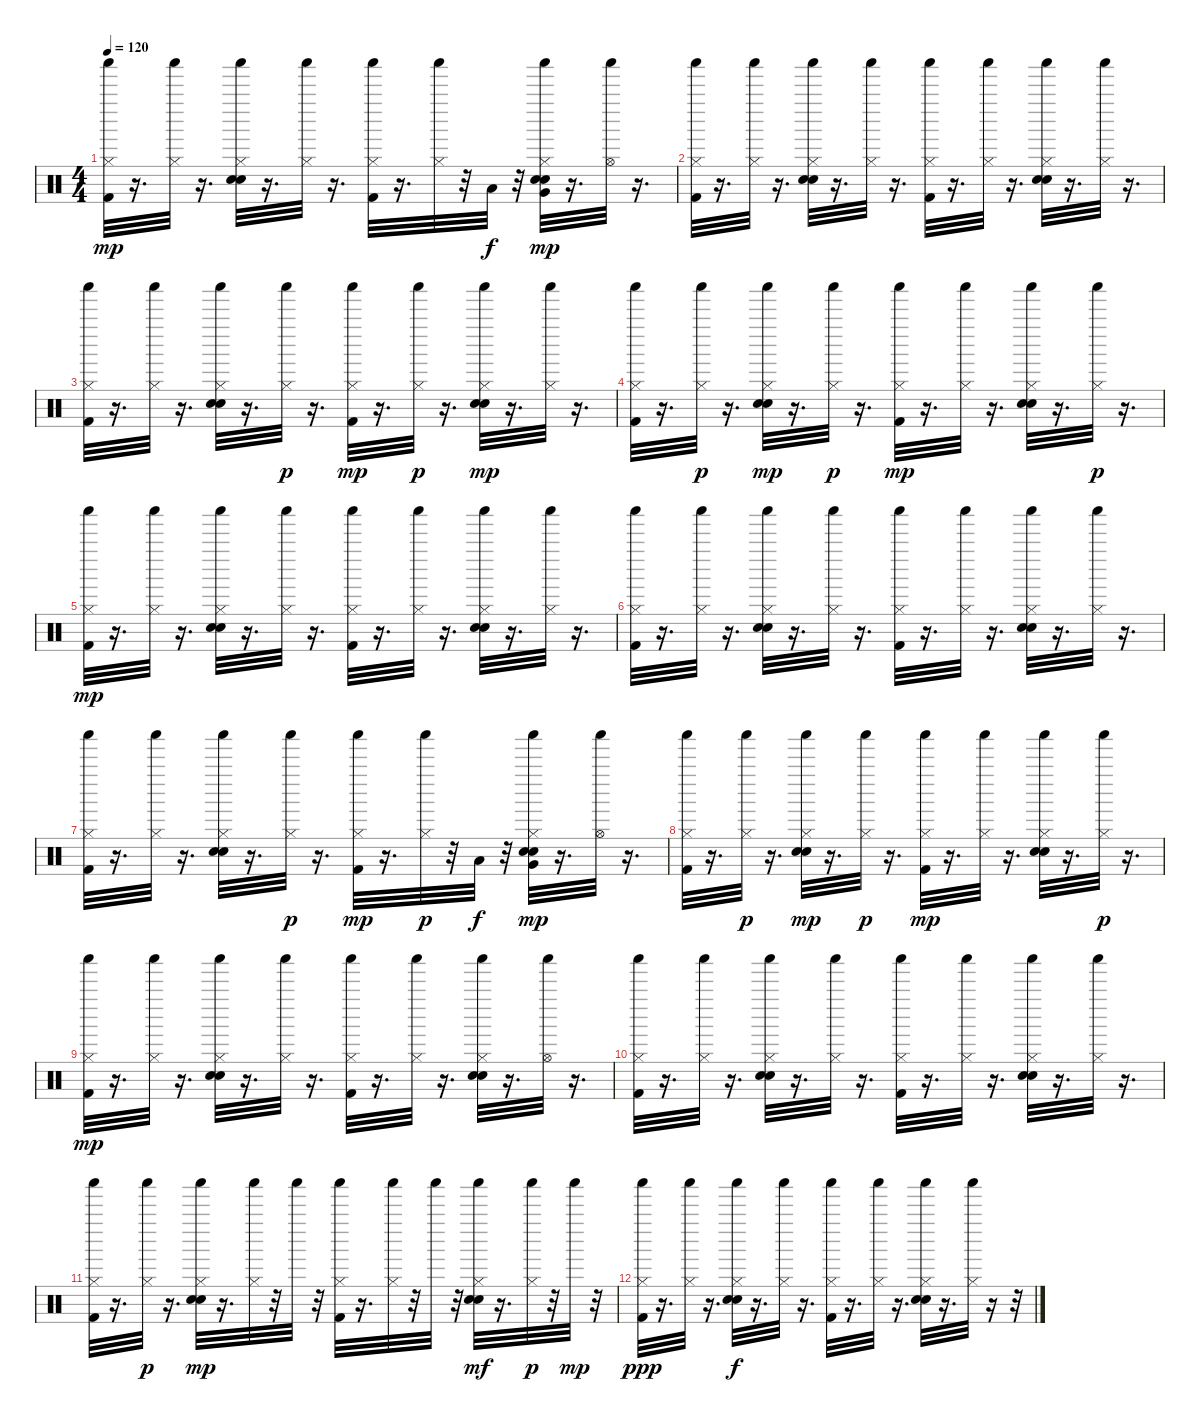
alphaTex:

\track "" {instrument percussion}
\staff {score}
\articulation defaults
\ts (4 4)
\tempo 120
\clef neutral
\ks c
("Kick (hit) 2" "Hi-Hat (closed)" "Shaker (hit)").32{dy mp} r.16{d} ("Hi-Hat (closed)" "Shaker (hit)").32 r.16{d} ("Hand Clap (hit)" "Electric Snare (hit)" "Hi-Hat (closed)" "Shaker (hit)").32 r.16{d} ("Hi-Hat (closed)" "Shaker (hit)").32 r.16{d} ("Kick (hit) 2" "Hi-Hat (closed)" "Shaker (hit)").32 r.16{d} ("Hi-Hat (closed)" "Shaker (hit)").32 r.32 "Low Tom (hit)".32{dy f} r.32 ("Hand Clap (hit)" "Electric Snare (hit)" "Hi-Hat (closed)" "Very Low Tom (hit)" "Shaker (hit)").32{dy mp} r.16{d} ("Hi-Hat (open)" "Shaker (hit)").32 r.16{d} |
("Kick (hit) 2" "Hi-Hat (closed)" "Shaker (hit)").32 r.16{d} ("Hi-Hat (closed)" "Shaker (hit)").32 r.16{d} ("Hand Clap (hit)" "Electric Snare (hit)" "Hi-Hat (closed)" "Shaker (hit)").32 r.16{d} ("Hi-Hat (closed)" "Shaker (hit)").32 r.16{d} ("Kick (hit) 2" "Hi-Hat (closed)" "Shaker (hit)").32 r.16{d} ("Hi-Hat (closed)" "Shaker (hit)").32 r.16{d} ("Hand Clap (hit)" "Electric Snare (hit)" "Hi-Hat (closed)" "Shaker (hit)").32 r.16{d} ("Hi-Hat (closed)" "Shaker (hit)").32 r.16{d} |
("Kick (hit) 2" "Hi-Hat (closed)" "Shaker (hit)").32 r.16{d} ("Hi-Hat (closed)" "Shaker (hit)").32 r.16{d} ("Hand Clap (hit)" "Electric Snare (hit)" "Hi-Hat (closed)" "Shaker (hit)").32 r.16{d} ("Hi-Hat (closed)" "Shaker (hit)").32{dy p} r.16{d} ("Kick (hit) 2" "Hi-Hat (closed)" "Shaker (hit)").32{dy mp} r.16{d} ("Hi-Hat (closed)" "Shaker (hit)").32{dy p} r.16{d} ("Hand Clap (hit)" "Electric Snare (hit)" "Hi-Hat (closed)" "Shaker (hit)").32{dy mp} r.16{d} ("Hi-Hat (closed)" "Shaker (hit)").32 r.16{d} |
("Kick (hit) 2" "Hi-Hat (closed)" "Shaker (hit)").32 r.16{d} ("Hi-Hat (closed)" "Shaker (hit)").32{dy p} r.16{d} ("Hand Clap (hit)" "Electric Snare (hit)" "Hi-Hat (closed)" "Shaker (hit)").32{dy mp} r.16{d} ("Hi-Hat (closed)" "Shaker (hit)").32{dy p} r.16{d} ("Kick (hit) 2" "Hi-Hat (closed)" "Shaker (hit)").32{dy mp} r.16{d} ("Hi-Hat (closed)" "Shaker (hit)").32 r.16{d} ("Hand Clap (hit)" "Electric Snare (hit)" "Hi-Hat (closed)" "Shaker (hit)").32 r.16{d} ("Hi-Hat (closed)" "Shaker (hit)").32{dy p} r.16{d} |
("Kick (hit) 2" "Hi-Hat (closed)" "Shaker (hit)").32{dy mp} r.16{d} ("Hi-Hat (closed)" "Shaker (hit)").32 r.16{d} ("Hand Clap (hit)" "Electric Snare (hit)" "Hi-Hat (closed)" "Shaker (hit)").32 r.16{d} ("Hi-Hat (closed)" "Shaker (hit)").32 r.16{d} ("Kick (hit) 2" "Hi-Hat (closed)" "Shaker (hit)").32 r.16{d} ("Hi-Hat (closed)" "Shaker (hit)").32 r.16{d} ("Hand Clap (hit)" "Electric Snare (hit)" "Hi-Hat (closed)" "Shaker (hit)").32 r.16{d} ("Hi-Hat (closed)" "Shaker (hit)").32 r.16{d} |
("Kick (hit) 2" "Hi-Hat (closed)" "Shaker (hit)").32 r.16{d} ("Hi-Hat (closed)" "Shaker (hit)").32 r.16{d} ("Hand Clap (hit)" "Electric Snare (hit)" "Hi-Hat (closed)" "Shaker (hit)").32 r.16{d} ("Hi-Hat (closed)" "Shaker (hit)").32 r.16{d} ("Kick (hit) 2" "Hi-Hat (closed)" "Shaker (hit)").32 r.16{d} ("Hi-Hat (closed)" "Shaker (hit)").32 r.16{d} ("Hand Clap (hit)" "Electric Snare (hit)" "Hi-Hat (closed)" "Shaker (hit)").32 r.16{d} ("Hi-Hat (closed)" "Shaker (hit)").32 r.16{d} |
("Kick (hit) 2" "Hi-Hat (closed)" "Shaker (hit)").32 r.16{d} ("Hi-Hat (closed)" "Shaker (hit)").32 r.16{d} ("Hand Clap (hit)" "Electric Snare (hit)" "Hi-Hat (closed)" "Shaker (hit)").32 r.16{d} ("Hi-Hat (closed)" "Shaker (hit)").32{dy p} r.16{d} ("Kick (hit) 2" "Hi-Hat (closed)" "Shaker (hit)").32{dy mp} r.16{d} ("Hi-Hat (closed)" "Shaker (hit)").32{dy p} r.32 "Low Tom (hit)".32{dy f} r.32 ("Hand Clap (hit)" "Electric Snare (hit)" "Hi-Hat (closed)" "Very Low Tom (hit)" "Shaker (hit)").32{dy mp} r.16{d} ("Hi-Hat (open)" "Shaker (hit)").32 r.16{d} |
("Kick (hit) 2" "Hi-Hat (closed)" "Shaker (hit)").32 r.16{d} ("Hi-Hat (closed)" "Shaker (hit)").32{dy p} r.16{d} ("Hand Clap (hit)" "Electric Snare (hit)" "Hi-Hat (closed)" "Shaker (hit)").32{dy mp} r.16{d} ("Hi-Hat (closed)" "Shaker (hit)").32{dy p} r.16{d} ("Kick (hit) 2" "Hi-Hat (closed)" "Shaker (hit)").32{dy mp} r.16{d} ("Hi-Hat (closed)" "Shaker (hit)").32 r.16{d} ("Hand Clap (hit)" "Electric Snare (hit)" "Hi-Hat (closed)" "Shaker (hit)").32 r.16{d} ("Hi-Hat (closed)" "Shaker (hit)").32{dy p} r.16{d} |
("Kick (hit) 2" "Hi-Hat (closed)" "Shaker (hit)").32{dy mp} r.16{d} ("Hi-Hat (closed)" "Shaker (hit)").32 r.16{d} ("Hand Clap (hit)" "Electric Snare (hit)" "Hi-Hat (closed)" "Shaker (hit)").32 r.16{d} ("Hi-Hat (closed)" "Shaker (hit)").32 r.16{d} ("Kick (hit) 2" "Hi-Hat (closed)" "Shaker (hit)").32 r.16{d} ("Hi-Hat (closed)" "Shaker (hit)").32 r.16{d} ("Hand Clap (hit)" "Electric Snare (hit)" "Hi-Hat (closed)" "Shaker (hit)").32 r.16{d} ("Hi-Hat (open)" "Shaker (hit)").32 r.16{d} |
("Kick (hit) 2" "Hi-Hat (closed)" "Shaker (hit)").32 r.16{d} ("Hi-Hat (closed)" "Shaker (hit)").32 r.16{d} ("Hand Clap (hit)" "Electric Snare (hit)" "Hi-Hat (closed)" "Shaker (hit)").32 r.16{d} ("Hi-Hat (closed)" "Shaker (hit)").32 r.16{d} ("Kick (hit) 2" "Hi-Hat (closed)" "Shaker (hit)").32 r.16{d} ("Hi-Hat (closed)" "Shaker (hit)").32 r.16{d} ("Hand Clap (hit)" "Electric Snare (hit)" "Hi-Hat (closed)" "Shaker (hit)").32 r.16{d} ("Hi-Hat (closed)" "Shaker (hit)").32 r.16{d} |
("Kick (hit) 2" "Hi-Hat (closed)" "Shaker (hit)").32 r.16{d} ("Hi-Hat (closed)" "Shaker (hit)").32{dy p} r.16{d} ("Hand Clap (hit)" "Electric Snare (hit)" "Hi-Hat (closed)" "Shaker (hit)").32{dy mp} r.16{d} ("Hi-Hat (closed)" "Shaker (hit)").32 r.32 "Shaker (hit)".32 r.32 ("Kick (hit) 2" "Hi-Hat (closed)" "Shaker (hit)").32 r.16{d} ("Hi-Hat (closed)" "Shaker (hit)").32 r.32 "Shaker (hit)".32 r.32 ("Hand Clap (hit)" "Electric Snare (hit)" "Hi-Hat (closed)" "Shaker (hit)").32{dy mf} r.16{d} ("Hi-Hat (closed)" "Shaker (hit)").32{dy p} r.32 "Shaker (hit)".32{dy mp} r.32 |
("Kick (hit) 2" "Hi-Hat (closed)" "Shaker (hit)").32{dy ppp} r.16{d} ("Hi-Hat (closed)" "Shaker (hit)").32 r.16{d} ("Hand Clap (hit)" "Electric Snare (hit)" "Hi-Hat (closed)" "Shaker (hit)").32{dy f} r.16{d} ("Hi-Hat (closed)" "Shaker (hit)").32 r.16{d} ("Kick (hit) 2" "Hi-Hat (closed)" "Shaker (hit)").32 r.16{d} ("Hi-Hat (closed)" "Shaker (hit)").32 r.16{d} ("Hand Clap (hit)" "Electric Snare (hit)" "Hi-Hat (closed)" "Shaker (hit)").32 r.16{d} ("Hi-Hat (closed)" "Shaker (hit)").32 r.16 r.32
